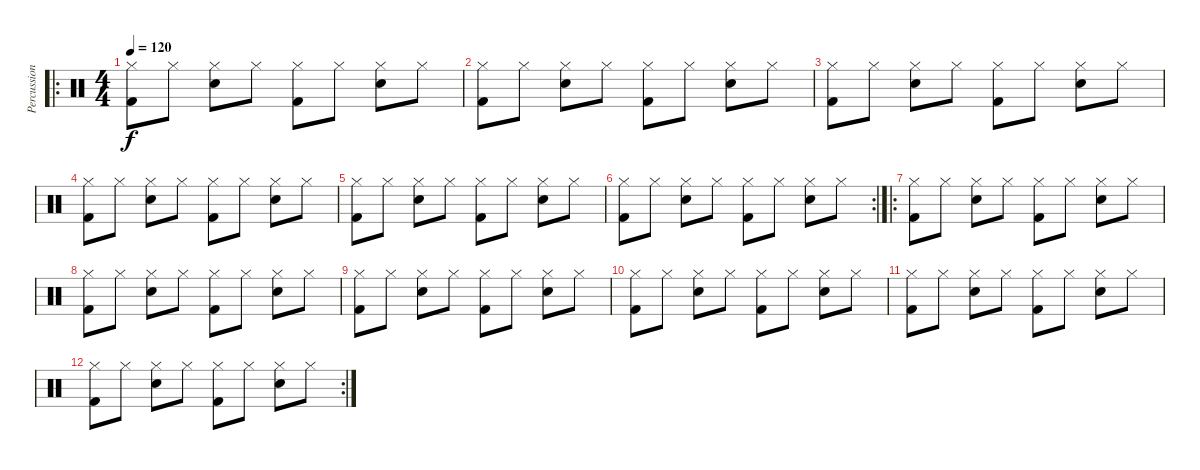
\track ("Percussions" "Percussion") {instrument percussion}
\staff {score}
\articulation defaults
\ro
\ts (4 4)
\tempo 120
\clef neutral
\ks c
("Hi-Hat (closed)" "Kick (hit) 2").8{dy f} "Hi-Hat (closed)".8 ("Hi-Hat (closed)" "Electric Snare (hit)").8 "Hi-Hat (closed)".8 ("Hi-Hat (closed)" "Kick (hit) 2").8 "Hi-Hat (closed)".8 ("Hi-Hat (closed)" "Electric Snare (hit)").8 "Hi-Hat (closed)".8 |
("Hi-Hat (closed)" "Kick (hit) 2").8 "Hi-Hat (closed)".8 ("Hi-Hat (closed)" "Electric Snare (hit)").8 "Hi-Hat (closed)".8 ("Hi-Hat (closed)" "Kick (hit) 2").8 "Hi-Hat (closed)".8 ("Hi-Hat (closed)" "Electric Snare (hit)").8 "Hi-Hat (closed)".8 |
("Hi-Hat (closed)" "Kick (hit) 2").8 "Hi-Hat (closed)".8 ("Hi-Hat (closed)" "Electric Snare (hit)").8 "Hi-Hat (closed)".8 ("Hi-Hat (closed)" "Kick (hit) 2").8 "Hi-Hat (closed)".8 ("Hi-Hat (closed)" "Electric Snare (hit)").8 "Hi-Hat (closed)".8 |
("Hi-Hat (closed)" "Kick (hit) 2").8 "Hi-Hat (closed)".8 ("Hi-Hat (closed)" "Electric Snare (hit)").8 "Hi-Hat (closed)".8 ("Hi-Hat (closed)" "Kick (hit) 2").8 "Hi-Hat (closed)".8 ("Hi-Hat (closed)" "Electric Snare (hit)").8 "Hi-Hat (closed)".8 |
("Hi-Hat (closed)" "Kick (hit) 2").8 "Hi-Hat (closed)".8 ("Hi-Hat (closed)" "Electric Snare (hit)").8 "Hi-Hat (closed)".8 ("Hi-Hat (closed)" "Kick (hit) 2").8 "Hi-Hat (closed)".8 ("Hi-Hat (closed)" "Electric Snare (hit)").8 "Hi-Hat (closed)".8 |
\rc 2
("Hi-Hat (closed)" "Kick (hit) 2").8 "Hi-Hat (closed)".8 ("Hi-Hat (closed)" "Electric Snare (hit)").8 "Hi-Hat (closed)".8 ("Hi-Hat (closed)" "Kick (hit) 2").8 "Hi-Hat (closed)".8 ("Hi-Hat (closed)" "Electric Snare (hit)").8 "Hi-Hat (closed)".8 |
\ro
("Hi-Hat (closed)" "Kick (hit) 2").8 "Hi-Hat (closed)".8 ("Hi-Hat (closed)" "Electric Snare (hit)").8 "Hi-Hat (closed)".8 ("Hi-Hat (closed)" "Kick (hit) 2").8 "Hi-Hat (closed)".8 ("Hi-Hat (closed)" "Electric Snare (hit)").8 "Hi-Hat (closed)".8 |
("Hi-Hat (closed)" "Kick (hit) 2").8 "Hi-Hat (closed)".8 ("Hi-Hat (closed)" "Electric Snare (hit)").8 "Hi-Hat (closed)".8 ("Hi-Hat (closed)" "Kick (hit) 2").8 "Hi-Hat (closed)".8 ("Hi-Hat (closed)" "Electric Snare (hit)").8 "Hi-Hat (closed)".8 |
("Hi-Hat (closed)" "Kick (hit) 2").8 "Hi-Hat (closed)".8 ("Hi-Hat (closed)" "Electric Snare (hit)").8 "Hi-Hat (closed)".8 ("Hi-Hat (closed)" "Kick (hit) 2").8 "Hi-Hat (closed)".8 ("Hi-Hat (closed)" "Electric Snare (hit)").8 "Hi-Hat (closed)".8 |
("Hi-Hat (closed)" "Kick (hit) 2").8 "Hi-Hat (closed)".8 ("Hi-Hat (closed)" "Electric Snare (hit)").8 "Hi-Hat (closed)".8 ("Hi-Hat (closed)" "Kick (hit) 2").8 "Hi-Hat (closed)".8 ("Hi-Hat (closed)" "Electric Snare (hit)").8 "Hi-Hat (closed)".8 |
("Hi-Hat (closed)" "Kick (hit) 2").8 "Hi-Hat (closed)".8 ("Hi-Hat (closed)" "Electric Snare (hit)").8 "Hi-Hat (closed)".8 ("Hi-Hat (closed)" "Kick (hit) 2").8 "Hi-Hat (closed)".8 ("Hi-Hat (closed)" "Electric Snare (hit)").8 "Hi-Hat (closed)".8 |
\rc 2
("Hi-Hat (closed)" "Kick (hit) 2").8 "Hi-Hat (closed)".8 ("Hi-Hat (closed)" "Electric Snare (hit)").8 "Hi-Hat (closed)".8 ("Hi-Hat (closed)" "Kick (hit) 2").8 "Hi-Hat (closed)".8 ("Hi-Hat (closed)" "Electric Snare (hit)").8 "Hi-Hat (closed)".8
